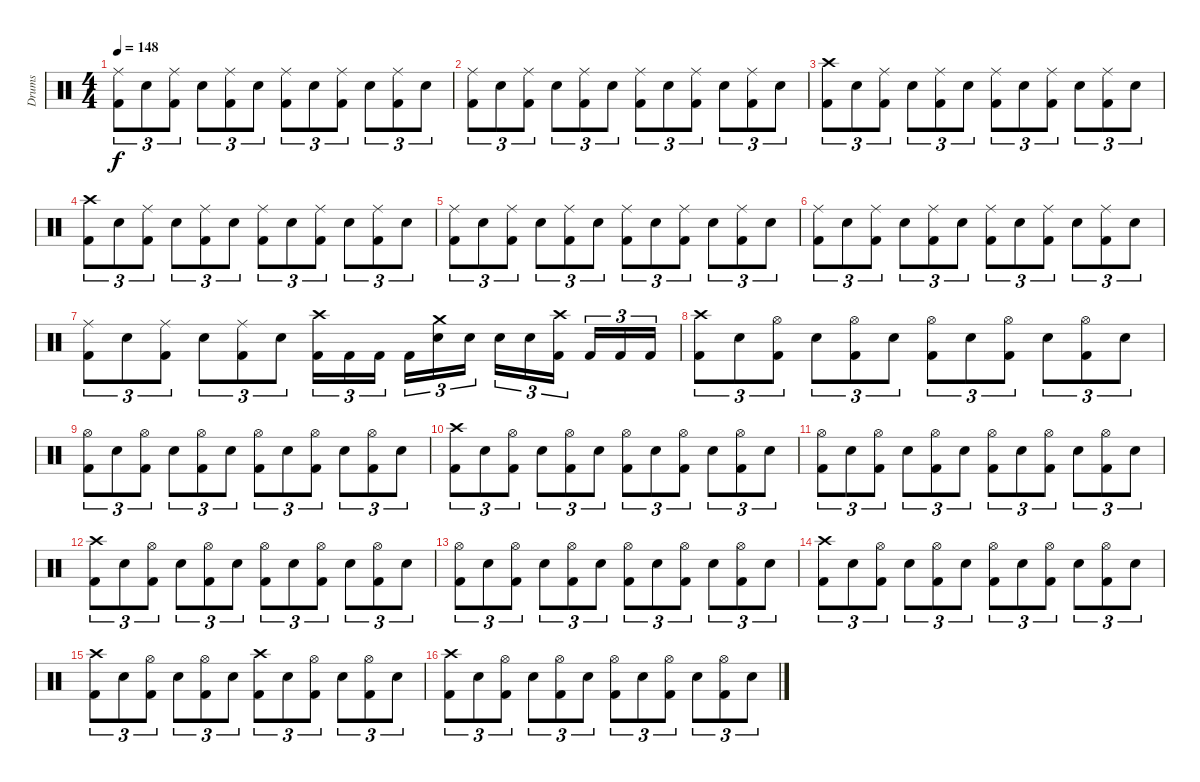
\track ("Drums" "Drums") {instrument percussion}
\staff {score}
\articulation defaults
\ts (4 4)
\tempo 148
\clef neutral
\ks c
("Ride (middle)" "Kick (hit) 2").8{tu (3 2) dy f} "Electric Snare (hit)".8{tu (3 2)} ("Ride (middle)" "Kick (hit) 2").8{tu (3 2)} "Electric Snare (hit)".8{tu (3 2)} ("Ride (middle)" "Kick (hit) 2").8{tu (3 2)} "Electric Snare (hit)".8{tu (3 2)} ("Ride (middle)" "Kick (hit) 2").8{tu (3 2)} "Electric Snare (hit)".8{tu (3 2)} ("Ride (middle)" "Kick (hit) 2").8{tu (3 2)} "Electric Snare (hit)".8{tu (3 2)} ("Ride (middle)" "Kick (hit) 2").8{tu (3 2)} "Electric Snare (hit)".8{tu (3 2)} |
("Ride (middle)" "Kick (hit) 2").8{tu (3 2)} "Electric Snare (hit)".8{tu (3 2)} ("Ride (middle)" "Kick (hit) 2").8{tu (3 2)} "Electric Snare (hit)".8{tu (3 2)} ("Ride (middle)" "Kick (hit) 2").8{tu (3 2)} "Electric Snare (hit)".8{tu (3 2)} ("Ride (middle)" "Kick (hit) 2").8{tu (3 2)} "Electric Snare (hit)".8{tu (3 2)} ("Ride (middle)" "Kick (hit) 2").8{tu (3 2)} "Electric Snare (hit)".8{tu (3 2)} ("Ride (middle)" "Kick (hit) 2").8{tu (3 2)} "Electric Snare (hit)".8{tu (3 2)} |
("Crash high (hit)" "Kick (hit) 2").8{tu (3 2)} "Electric Snare (hit)".8{tu (3 2)} ("Ride (middle)" "Kick (hit) 2").8{tu (3 2)} "Electric Snare (hit)".8{tu (3 2)} ("Ride (middle)" "Kick (hit) 2").8{tu (3 2)} "Electric Snare (hit)".8{tu (3 2)} ("Ride (middle)" "Kick (hit) 2").8{tu (3 2)} "Electric Snare (hit)".8{tu (3 2)} ("Ride (middle)" "Kick (hit) 2").8{tu (3 2)} "Electric Snare (hit)".8{tu (3 2)} ("Ride (middle)" "Kick (hit) 2").8{tu (3 2)} "Electric Snare (hit)".8{tu (3 2)} |
("Crash high (hit)" "Kick (hit) 2").8{tu (3 2)} "Electric Snare (hit)".8{tu (3 2)} ("Ride (middle)" "Kick (hit) 2").8{tu (3 2)} "Electric Snare (hit)".8{tu (3 2)} ("Ride (middle)" "Kick (hit) 2").8{tu (3 2)} "Electric Snare (hit)".8{tu (3 2)} ("Ride (middle)" "Kick (hit) 2").8{tu (3 2)} "Electric Snare (hit)".8{tu (3 2)} ("Ride (middle)" "Kick (hit) 2").8{tu (3 2)} "Electric Snare (hit)".8{tu (3 2)} ("Ride (middle)" "Kick (hit) 2").8{tu (3 2)} "Electric Snare (hit)".8{tu (3 2)} |
("Ride (middle)" "Kick (hit) 2").8{tu (3 2)} "Electric Snare (hit)".8{tu (3 2)} ("Ride (middle)" "Kick (hit) 2").8{tu (3 2)} "Electric Snare (hit)".8{tu (3 2)} ("Ride (middle)" "Kick (hit) 2").8{tu (3 2)} "Electric Snare (hit)".8{tu (3 2)} ("Ride (middle)" "Kick (hit) 2").8{tu (3 2)} "Electric Snare (hit)".8{tu (3 2)} ("Ride (middle)" "Kick (hit) 2").8{tu (3 2)} "Electric Snare (hit)".8{tu (3 2)} ("Ride (middle)" "Kick (hit) 2").8{tu (3 2)} "Electric Snare (hit)".8{tu (3 2)} |
("Ride (middle)" "Kick (hit) 2").8{tu (3 2)} "Electric Snare (hit)".8{tu (3 2)} ("Ride (middle)" "Kick (hit) 2").8{tu (3 2)} "Electric Snare (hit)".8{tu (3 2)} ("Ride (middle)" "Kick (hit) 2").8{tu (3 2)} "Electric Snare (hit)".8{tu (3 2)} ("Ride (middle)" "Kick (hit) 2").8{tu (3 2)} "Electric Snare (hit)".8{tu (3 2)} ("Ride (middle)" "Kick (hit) 2").8{tu (3 2)} "Electric Snare (hit)".8{tu (3 2)} ("Ride (middle)" "Kick (hit) 2").8{tu (3 2)} "Electric Snare (hit)".8{tu (3 2)} |
("Ride (middle)" "Kick (hit) 2").8{tu (3 2)} "Electric Snare (hit)".8{tu (3 2)} ("Ride (middle)" "Kick (hit) 2").8{tu (3 2)} "Electric Snare (hit)".8{tu (3 2)} ("Ride (middle)" "Kick (hit) 2").8{tu (3 2)} "Electric Snare (hit)".8{tu (3 2)} ("Crash high (hit)" "Kick (hit) 2").16{tu (3 2)} "Kick (hit) 2".16{tu (3 2)} "Kick (hit) 2".16{tu (3 2)} "Kick (hit) 2".16{tu (3 2)} ("Crash medium (hit)" "Electric Snare (hit)").16{tu (3 2)} "Electric Snare (hit)".16{tu (3 2)} "Electric Snare (hit)".16{tu (3 2)} "Electric Snare (hit)".16{tu (3 2)} ("Crash high (hit)" "Kick (hit) 2").16{tu (3 2)} "Kick (hit) 2".16{tu (3 2)} "Kick (hit) 2".16{tu (3 2)} "Kick (hit) 2".16{tu (3 2)} |
("Crash high (hit)" "Kick (hit) 2").8{tu (3 2)} "Electric Snare (hit)".8{tu (3 2)} ("Hi-Hat (open)" "Kick (hit) 2").8{tu (3 2)} "Electric Snare (hit)".8{tu (3 2)} ("Hi-Hat (open)" "Kick (hit) 2").8{tu (3 2)} "Electric Snare (hit)".8{tu (3 2)} ("Hi-Hat (open)" "Kick (hit) 2").8{tu (3 2)} "Electric Snare (hit)".8{tu (3 2)} ("Hi-Hat (open)" "Kick (hit) 2").8{tu (3 2)} "Electric Snare (hit)".8{tu (3 2)} ("Hi-Hat (open)" "Kick (hit) 2").8{tu (3 2)} "Electric Snare (hit)".8{tu (3 2)} |
("Hi-Hat (open)" "Kick (hit) 2").8{tu (3 2)} "Electric Snare (hit)".8{tu (3 2)} ("Hi-Hat (open)" "Kick (hit) 2").8{tu (3 2)} "Electric Snare (hit)".8{tu (3 2)} ("Hi-Hat (open)" "Kick (hit) 2").8{tu (3 2)} "Electric Snare (hit)".8{tu (3 2)} ("Hi-Hat (open)" "Kick (hit) 2").8{tu (3 2)} "Electric Snare (hit)".8{tu (3 2)} ("Hi-Hat (open)" "Kick (hit) 2").8{tu (3 2)} "Electric Snare (hit)".8{tu (3 2)} ("Hi-Hat (open)" "Kick (hit) 2").8{tu (3 2)} "Electric Snare (hit)".8{tu (3 2)} |
("Crash high (hit)" "Kick (hit) 2").8{tu (3 2)} "Electric Snare (hit)".8{tu (3 2)} ("Hi-Hat (open)" "Kick (hit) 2").8{tu (3 2)} "Electric Snare (hit)".8{tu (3 2)} ("Hi-Hat (open)" "Kick (hit) 2").8{tu (3 2)} "Electric Snare (hit)".8{tu (3 2)} ("Hi-Hat (open)" "Kick (hit) 2").8{tu (3 2)} "Electric Snare (hit)".8{tu (3 2)} ("Hi-Hat (open)" "Kick (hit) 2").8{tu (3 2)} "Electric Snare (hit)".8{tu (3 2)} ("Hi-Hat (open)" "Kick (hit) 2").8{tu (3 2)} "Electric Snare (hit)".8{tu (3 2)} |
("Hi-Hat (open)" "Kick (hit) 2").8{tu (3 2)} "Electric Snare (hit)".8{tu (3 2)} ("Hi-Hat (open)" "Kick (hit) 2").8{tu (3 2)} "Electric Snare (hit)".8{tu (3 2)} ("Hi-Hat (open)" "Kick (hit) 2").8{tu (3 2)} "Electric Snare (hit)".8{tu (3 2)} ("Hi-Hat (open)" "Kick (hit) 2").8{tu (3 2)} "Electric Snare (hit)".8{tu (3 2)} ("Hi-Hat (open)" "Kick (hit) 2").8{tu (3 2)} "Electric Snare (hit)".8{tu (3 2)} ("Hi-Hat (open)" "Kick (hit) 2").8{tu (3 2)} "Electric Snare (hit)".8{tu (3 2)} |
("Crash high (hit)" "Kick (hit) 2").8{tu (3 2)} "Electric Snare (hit)".8{tu (3 2)} ("Hi-Hat (open)" "Kick (hit) 2").8{tu (3 2)} "Electric Snare (hit)".8{tu (3 2)} ("Hi-Hat (open)" "Kick (hit) 2").8{tu (3 2)} "Electric Snare (hit)".8{tu (3 2)} ("Hi-Hat (open)" "Kick (hit) 2").8{tu (3 2)} "Electric Snare (hit)".8{tu (3 2)} ("Hi-Hat (open)" "Kick (hit) 2").8{tu (3 2)} "Electric Snare (hit)".8{tu (3 2)} ("Hi-Hat (open)" "Kick (hit) 2").8{tu (3 2)} "Electric Snare (hit)".8{tu (3 2)} |
("Hi-Hat (open)" "Kick (hit) 2").8{tu (3 2)} "Electric Snare (hit)".8{tu (3 2)} ("Hi-Hat (open)" "Kick (hit) 2").8{tu (3 2)} "Electric Snare (hit)".8{tu (3 2)} ("Hi-Hat (open)" "Kick (hit) 2").8{tu (3 2)} "Electric Snare (hit)".8{tu (3 2)} ("Hi-Hat (open)" "Kick (hit) 2").8{tu (3 2)} "Electric Snare (hit)".8{tu (3 2)} ("Hi-Hat (open)" "Kick (hit) 2").8{tu (3 2)} "Electric Snare (hit)".8{tu (3 2)} ("Hi-Hat (open)" "Kick (hit) 2").8{tu (3 2)} "Electric Snare (hit)".8{tu (3 2)} |
("Crash high (hit)" "Kick (hit) 2").8{tu (3 2)} "Electric Snare (hit)".8{tu (3 2)} ("Hi-Hat (open)" "Kick (hit) 2").8{tu (3 2)} "Electric Snare (hit)".8{tu (3 2)} ("Hi-Hat (open)" "Kick (hit) 2").8{tu (3 2)} "Electric Snare (hit)".8{tu (3 2)} ("Hi-Hat (open)" "Kick (hit) 2").8{tu (3 2)} "Electric Snare (hit)".8{tu (3 2)} ("Hi-Hat (open)" "Kick (hit) 2").8{tu (3 2)} "Electric Snare (hit)".8{tu (3 2)} ("Hi-Hat (open)" "Kick (hit) 2").8{tu (3 2)} "Electric Snare (hit)".8{tu (3 2)} |
("Crash high (hit)" "Kick (hit) 2").8{tu (3 2)} "Electric Snare (hit)".8{tu (3 2)} ("Hi-Hat (open)" "Kick (hit) 2").8{tu (3 2)} "Electric Snare (hit)".8{tu (3 2)} ("Hi-Hat (open)" "Kick (hit) 2").8{tu (3 2)} "Electric Snare (hit)".8{tu (3 2)} ("Crash high (hit)" "Kick (hit) 2").8{tu (3 2)} "Electric Snare (hit)".8{tu (3 2)} ("Hi-Hat (open)" "Kick (hit) 2").8{tu (3 2)} "Electric Snare (hit)".8{tu (3 2)} ("Hi-Hat (open)" "Kick (hit) 2").8{tu (3 2)} "Electric Snare (hit)".8{tu (3 2)} |
("Crash high (hit)" "Kick (hit) 2").8{tu (3 2)} "Electric Snare (hit)".8{tu (3 2)} ("Hi-Hat (open)" "Kick (hit) 2").8{tu (3 2)} "Electric Snare (hit)".8{tu (3 2)} ("Hi-Hat (open)" "Kick (hit) 2").8{tu (3 2)} "Electric Snare (hit)".8{tu (3 2)} ("Hi-Hat (open)" "Kick (hit) 2").8{tu (3 2)} "Electric Snare (hit)".8{tu (3 2)} ("Hi-Hat (open)" "Kick (hit) 2").8{tu (3 2)} "Electric Snare (hit)".8{tu (3 2)} ("Hi-Hat (open)" "Kick (hit) 2").8{tu (3 2)} "Electric Snare (hit)".8{tu (3 2)}
